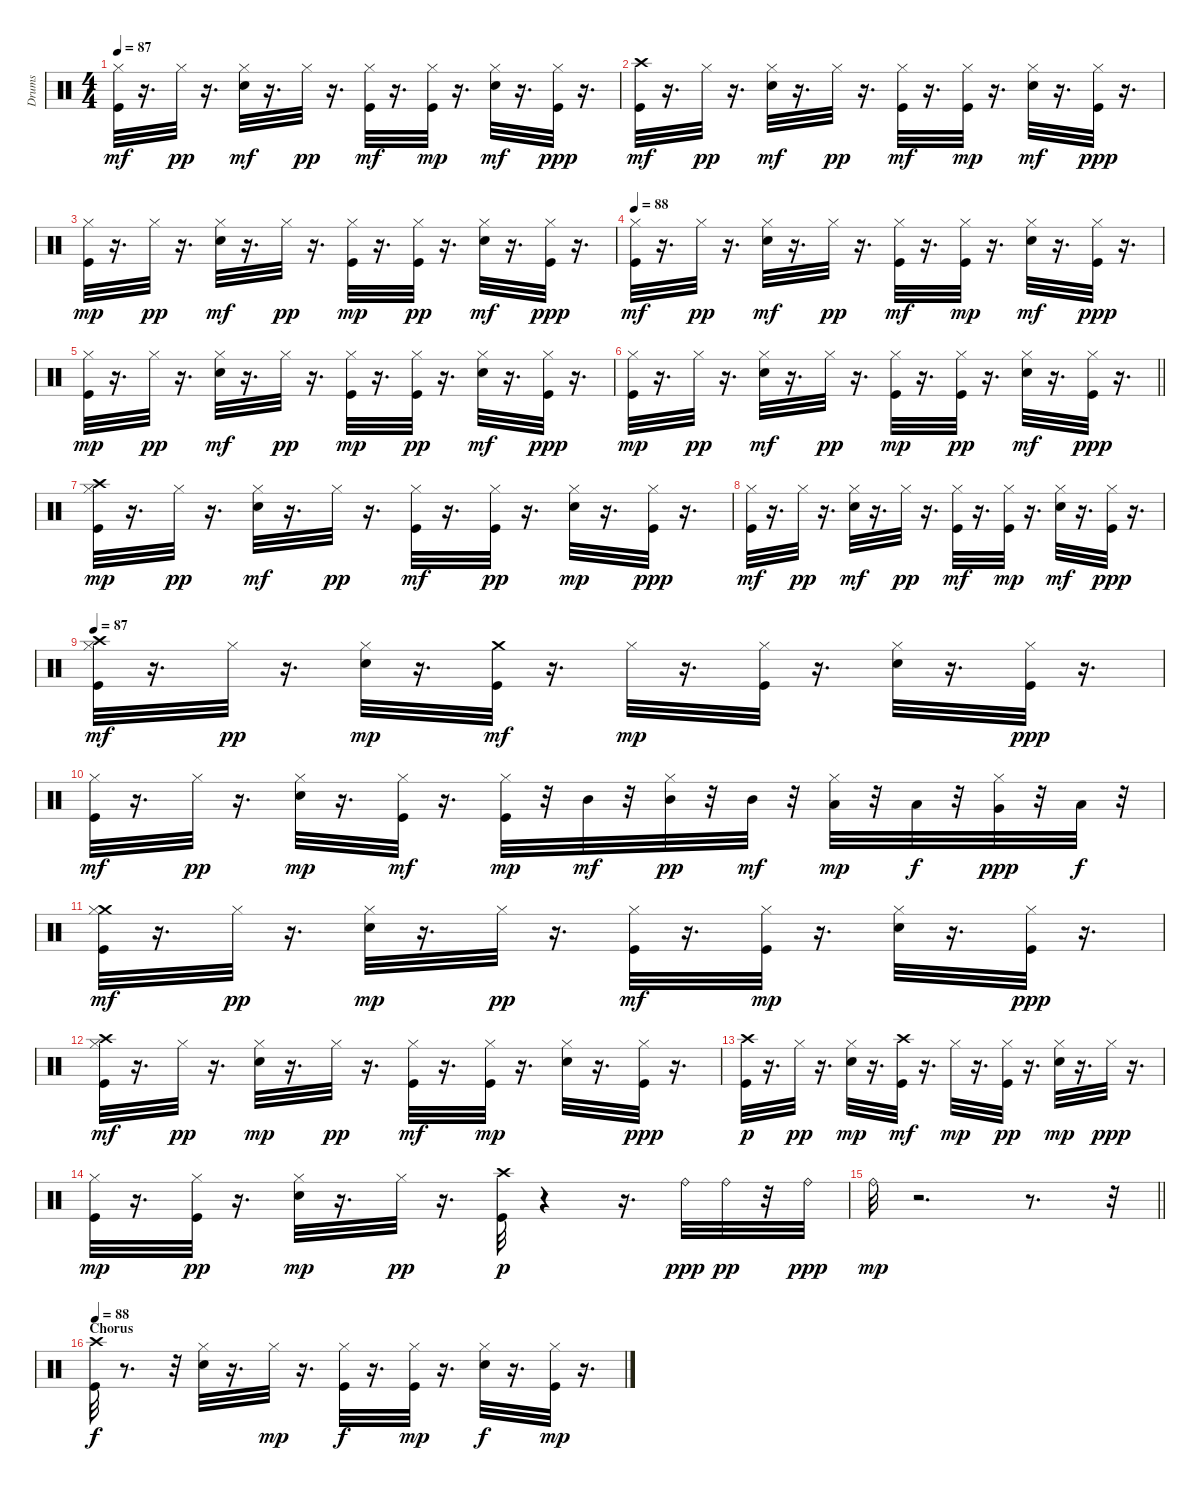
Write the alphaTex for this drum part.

\track ("Drums" "Drums") {instrument percussion}
\staff {score}
\articulation defaults
\ts (4 4)
\tempo 87
\clef neutral
\ks c
("Hi-Hat (closed)" "Kick (hit)").32{dy mf} r.16{d} "Hi-Hat (closed)".32{dy pp} r.16{d} ("Hi-Hat (closed)" "Electric Snare (hit)").32{dy mf} r.16{d} "Hi-Hat (closed)".32{dy pp} r.16{d} ("Hi-Hat (closed)" "Kick (hit)").32{dy mf} r.16{d} ("Hi-Hat (closed)" "Kick (hit)").32{dy mp} r.16{d} ("Hi-Hat (closed)" "Electric Snare (hit)").32{dy mf} r.16{d} ("Hi-Hat (closed)" "Kick (hit)").32{dy ppp} r.16{d} |
("Crash high (hit)" "Kick (hit)").32{dy mf} r.16{d} "Hi-Hat (closed)".32{dy pp} r.16{d} ("Hi-Hat (closed)" "Electric Snare (hit)").32{dy mf} r.16{d} "Hi-Hat (closed)".32{dy pp} r.16{d} ("Hi-Hat (closed)" "Kick (hit)").32{dy mf} r.16{d} ("Hi-Hat (closed)" "Kick (hit)").32{dy mp} r.16{d} ("Hi-Hat (closed)" "Electric Snare (hit)").32{dy mf} r.16{d} ("Hi-Hat (closed)" "Kick (hit)").32{dy ppp} r.16{d} |
("Kick (hit)" "Hi-Hat (closed)").32{dy mp} r.16{d} "Hi-Hat (closed)".32{dy pp} r.16{d} ("Hi-Hat (closed)" "Electric Snare (hit)").32{dy mf} r.16{d} "Hi-Hat (closed)".32{dy pp} r.16{d} ("Kick (hit)" "Hi-Hat (closed)").32{dy mp} r.16{d} ("Kick (hit)" "Hi-Hat (closed)").32{dy pp} r.16{d} ("Hi-Hat (closed)" "Electric Snare (hit)").32{dy mf} r.16{d} ("Kick (hit)" "Hi-Hat (closed)").32{dy ppp} r.16{d} |
\tempo 88
("Hi-Hat (closed)" "Kick (hit)").32{dy mf} r.16{d} "Hi-Hat (closed)".32{dy pp} r.16{d} ("Hi-Hat (closed)" "Electric Snare (hit)").32{dy mf} r.16{d} "Hi-Hat (closed)".32{dy pp} r.16{d} ("Hi-Hat (closed)" "Kick (hit)").32{dy mf} r.16{d} ("Hi-Hat (closed)" "Kick (hit)").32{dy mp} r.16{d} ("Hi-Hat (closed)" "Electric Snare (hit)").32{dy mf} r.16{d} ("Hi-Hat (closed)" "Kick (hit)").32{dy ppp} r.16{d} |
("Kick (hit)" "Hi-Hat (closed)").32{dy mp} r.16{d} "Hi-Hat (closed)".32{dy pp} r.16{d} ("Hi-Hat (closed)" "Electric Snare (hit)").32{dy mf} r.16{d} "Hi-Hat (closed)".32{dy pp} r.16{d} ("Kick (hit)" "Hi-Hat (closed)").32{dy mp} r.16{d} ("Kick (hit)" "Hi-Hat (closed)").32{dy pp} r.16{d} ("Hi-Hat (closed)" "Electric Snare (hit)").32{dy mf} r.16{d} ("Kick (hit)" "Hi-Hat (closed)").32{dy ppp} r.16{d} |
\barLineRight lightlight
("Kick (hit)" "Hi-Hat (closed)").32{dy mp} r.16{d} "Hi-Hat (closed)".32{dy pp} r.16{d} ("Hi-Hat (closed)" "Electric Snare (hit)").32{dy mf} r.16{d} "Hi-Hat (closed)".32{dy pp} r.16{d} ("Kick (hit)" "Hi-Hat (closed)").32{dy mp} r.16{d} ("Kick (hit)" "Hi-Hat (closed)").32{dy pp} r.16{d} ("Hi-Hat (closed)" "Electric Snare (hit)").32{dy mf} r.16{d} ("Kick (hit)" "Hi-Hat (closed)").32{dy ppp} r.16{d} |
("Crash high (hit)" "Kick (hit)" "Hi-Hat (closed)").32{dy mp volume 12} r.16{d} "Hi-Hat (closed)".32{dy pp} r.16{d} ("Hi-Hat (closed)" "Electric Snare (hit)").32{dy mf} r.16{d} "Hi-Hat (closed)".32{dy pp} r.16{d} ("Hi-Hat (closed)" "Kick (hit)").32{dy mf} r.16{d} ("Kick (hit)" "Hi-Hat (closed)").32{dy pp} r.16{d} ("Electric Snare (hit)" "Hi-Hat (closed)").32{dy mp} r.16{d} ("Hi-Hat (closed)" "Kick (hit)").32{dy ppp} r.16{d} |
("Hi-Hat (closed)" "Kick (hit)").32{dy mf} r.16{d} "Hi-Hat (closed)".32{dy pp} r.16{d} ("Hi-Hat (closed)" "Electric Snare (hit)").32{dy mf} r.16{d} "Hi-Hat (closed)".32{dy pp} r.16{d} ("Hi-Hat (closed)" "Kick (hit)").32{dy mf} r.16{d} ("Hi-Hat (closed)" "Kick (hit)").32{dy mp} r.16{d} ("Hi-Hat (closed)" "Electric Snare (hit)").32{dy mf} r.16{d} ("Hi-Hat (closed)" "Kick (hit)").32{dy ppp} r.16{d} |
\tempo 87
("Crash high (hit)" "Hi-Hat (closed)" "Kick (hit)").32{dy mf} r.16{d} "Hi-Hat (closed)".32{dy pp} r.16{d} ("Electric Snare (hit)" "Hi-Hat (closed)").32{dy mp} r.16{d} ("Crash medium (hit)" "Kick (hit)").32{dy mf} r.16{d} "Hi-Hat (closed)".32{dy mp} r.16{d} ("Hi-Hat (closed)" "Kick (hit)").32 r.16{d} ("Electric Snare (hit)" "Hi-Hat (closed)").32 r.16{d} ("Hi-Hat (closed)" "Kick (hit)").32{dy ppp} r.16{d} |
("Hi-Hat (closed)" "Kick (hit)").32{dy mf} r.16{d} "Hi-Hat (closed)".32{dy pp} r.16{d} ("Electric Snare (hit)" "Hi-Hat (closed)").32{dy mp} r.16{d} ("Hi-Hat (closed)" "Kick (hit)").32{dy mf} r.16{d} ("Kick (hit)" "Hi-Hat (closed)").32{dy mp} r.32 "Mid Tom (hit)".32{dy mf} r.32 ("Mid Tom (hit)" "Hi-Hat (closed)").32{dy pp} r.32 "Mid Tom (hit)".32{dy mf} r.32 ("Hi-Hat (closed)" "Low Tom (hit)").32{dy mp} r.32 "Low Tom (hit)".32{dy f} r.32 ("Very Low Tom (hit)" "Hi-Hat (closed)").32{dy ppp} r.32 "Low Floor Tom (hit)".32{dy f} r.32 |
("Crash medium (hit)" "Hi-Hat (closed)" "Kick (hit)").32{dy mf} r.16{d} "Hi-Hat (closed)".32{dy pp} r.16{d} ("Electric Snare (hit)" "Hi-Hat (closed)").32{dy mp} r.16{d} "Hi-Hat (closed)".32{dy pp} r.16{d} ("Hi-Hat (closed)" "Kick (hit)").32{dy mf} r.16{d} ("Hi-Hat (closed)" "Kick (hit)").32{dy mp} r.16{d} ("Electric Snare (hit)" "Hi-Hat (closed)").32 r.16{d} ("Hi-Hat (closed)" "Kick (hit)").32{dy ppp} r.16{d} |
("Crash high (hit)" "Hi-Hat (closed)" "Kick (hit)").32{dy mf} r.16{d} "Hi-Hat (closed)".32{dy pp} r.16{d} ("Electric Snare (hit)" "Hi-Hat (closed)").32{dy mp} r.16{d} "Hi-Hat (closed)".32{dy pp} r.16{d} ("Hi-Hat (closed)" "Kick (hit)").32{dy mf} r.16{d} ("Hi-Hat (closed)" "Kick (hit)").32{dy mp} r.16{d} ("Electric Snare (hit)" "Hi-Hat (closed)").32 r.16{d} ("Hi-Hat (closed)" "Kick (hit)").32{dy ppp} r.16{d} |
("Kick (hit)" "Crash high (hit)").32{dy p} r.16{d} "Hi-Hat (closed)".32{dy pp} r.16{d} ("Electric Snare (hit)" "Hi-Hat (closed)").32{dy mp} r.16{d} ("Crash high (hit)" "Kick (hit)").32{dy mf} r.16{d} "Hi-Hat (closed)".32{dy mp} r.16{d} ("Kick (hit)" "Hi-Hat (closed)").32{dy pp} r.16{d} ("Electric Snare (hit)" "Hi-Hat (closed)").32{dy mp} r.16{d} "Hi-Hat (closed)".32{dy ppp} r.16{d} |
("Kick (hit)" "Hi-Hat (closed)").32{dy mp} r.16{d} ("Kick (hit)" "Hi-Hat (closed)").32{dy pp} r.16{d} ("Electric Snare (hit)" "Hi-Hat (closed)").32{dy mp} r.16{d} "Hi-Hat (closed)".32{dy pp} r.16{d} ("Kick (hit)" "Crash high (hit)").32{dy p} r.4 r.16{d} "Ride (bell)".32{dy ppp} "Ride (bell)".32{dy pp} r.32 "Ride (bell)".32{dy ppp} |
\barLineRight lightlight "Ride (bell)".32{dy mp}
r.2{d} r.8{d} r.32 |
\section ("" "Chorus")
\tempo 88
("Kick (hit)" "Crash high (hit)").32{dy f} r.8{d} r.32 ("Hi-Hat (closed)" "Electric Snare (hit)").32 r.16{d} "Hi-Hat (closed)".32{dy mp} r.16{d} ("Kick (hit)" "Hi-Hat (closed)").32{dy f} r.16{d} ("Hi-Hat (closed)" "Kick (hit)").32{dy mp} r.16{d} ("Hi-Hat (closed)" "Electric Snare (hit)").32{dy f} r.16{d} ("Hi-Hat (closed)" "Kick (hit)").32{dy mp} r.16{d}
